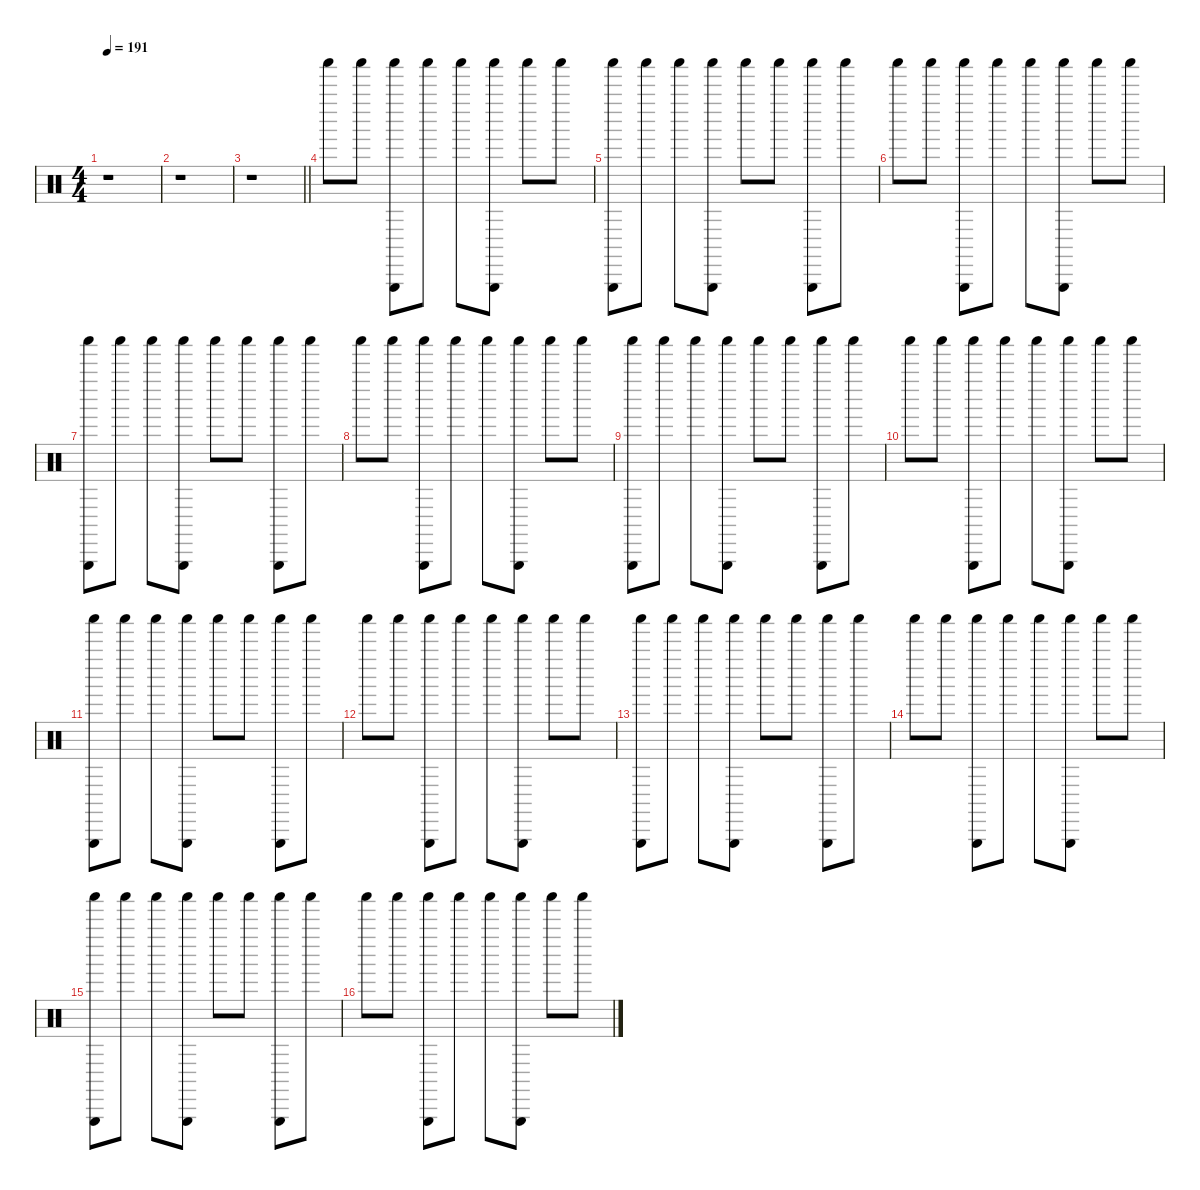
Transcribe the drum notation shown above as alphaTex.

\defaultSystemsLayout 4
\hideDynamics
\bracketExtendMode nobrackets
\singleTrackTrackNamePolicy hidden
\multiTrackTrackNamePolicy hidden
\firstSystemTrackNameMode fullname
\firstSystemTrackNameOrientation horizontal
\otherSystemsTrackNameOrientation horizontal
\track ("Percussion" "drm.") {instrument percussion}
\staff {score}
\articulation defaults
\ts (4 4)
\tempo 191
\clef neutral
\ks c
r.1{dy mp} |
r.1 |
\barLineRight lightlight
r.1 |
"Shaker (hit)".8 "Shaker (hit)".8 ("Shaker (hit)" "Triangle (hit)").8{dy fff} "Shaker (hit)".8{dy mp} "Shaker (hit)".8 ("Shaker (hit)" "Triangle (hit)").8 "Shaker (hit)".8{dy fff} "Shaker (hit)".8{dy mp} |
("Shaker (hit)" "Triangle (hit)").8 "Shaker (hit)".8 "Shaker (hit)".8{dy fff} ("Shaker (hit)" "Triangle (hit)").8{dy mp} "Shaker (hit)".8 "Shaker (hit)".8 ("Shaker (hit)" "Triangle (hit)").8{dy fff} "Shaker (hit)".8{dy mp} |
"Shaker (hit)".8 "Shaker (hit)".8 ("Shaker (hit)" "Triangle (hit)").8{dy fff} "Shaker (hit)".8{dy mp} "Shaker (hit)".8 ("Shaker (hit)" "Triangle (hit)").8 "Shaker (hit)".8{dy fff} "Shaker (hit)".8{dy mp} |
("Shaker (hit)" "Triangle (hit)").8 "Shaker (hit)".8 "Shaker (hit)".8{dy fff} ("Shaker (hit)" "Triangle (hit)").8{dy mp} "Shaker (hit)".8 "Shaker (hit)".8 ("Shaker (hit)" "Triangle (hit)").8{dy fff} "Shaker (hit)".8{dy mp} |
"Shaker (hit)".8 "Shaker (hit)".8 ("Shaker (hit)" "Triangle (hit)").8{dy fff} "Shaker (hit)".8{dy mp} "Shaker (hit)".8 ("Shaker (hit)" "Triangle (hit)").8 "Shaker (hit)".8{dy fff} "Shaker (hit)".8{dy mp} |
("Shaker (hit)" "Triangle (hit)").8 "Shaker (hit)".8 "Shaker (hit)".8{dy fff} ("Shaker (hit)" "Triangle (hit)").8{dy mp} "Shaker (hit)".8 "Shaker (hit)".8 ("Shaker (hit)" "Triangle (hit)").8{dy fff} "Shaker (hit)".8{dy mp} |
"Shaker (hit)".8 "Shaker (hit)".8 ("Shaker (hit)" "Triangle (hit)").8{dy fff} "Shaker (hit)".8{dy mp} "Shaker (hit)".8 ("Shaker (hit)" "Triangle (hit)").8 "Shaker (hit)".8{dy fff} "Shaker (hit)".8{dy mp} |
("Shaker (hit)" "Triangle (hit)").8 "Shaker (hit)".8 "Shaker (hit)".8{dy fff} ("Shaker (hit)" "Triangle (hit)").8{dy mp} "Shaker (hit)".8 "Shaker (hit)".8 ("Shaker (hit)" "Triangle (hit)").8{dy fff} "Shaker (hit)".8{dy mp} |
"Shaker (hit)".8 "Shaker (hit)".8 ("Shaker (hit)" "Triangle (hit)").8{dy fff} "Shaker (hit)".8{dy mp} "Shaker (hit)".8 ("Shaker (hit)" "Triangle (hit)").8 "Shaker (hit)".8{dy fff} "Shaker (hit)".8{dy mp} |
("Shaker (hit)" "Triangle (hit)").8 "Shaker (hit)".8 "Shaker (hit)".8{dy fff} ("Shaker (hit)" "Triangle (hit)").8{dy mp} "Shaker (hit)".8 "Shaker (hit)".8 ("Shaker (hit)" "Triangle (hit)").8{dy fff} "Shaker (hit)".8{dy mp} |
"Shaker (hit)".8 "Shaker (hit)".8 ("Shaker (hit)" "Triangle (hit)").8{dy fff} "Shaker (hit)".8{dy mp} "Shaker (hit)".8 ("Shaker (hit)" "Triangle (hit)").8 "Shaker (hit)".8{dy fff} "Shaker (hit)".8{dy mp} |
("Shaker (hit)" "Triangle (hit)").8 "Shaker (hit)".8 "Shaker (hit)".8{dy fff} ("Shaker (hit)" "Triangle (hit)").8{dy mp} "Shaker (hit)".8 "Shaker (hit)".8 ("Shaker (hit)" "Triangle (hit)").8{dy fff} "Shaker (hit)".8{dy mp} |
"Shaker (hit)".8 "Shaker (hit)".8 ("Shaker (hit)" "Triangle (hit)").8{dy fff} "Shaker (hit)".8{dy mp} "Shaker (hit)".8 ("Shaker (hit)" "Triangle (hit)").8 "Shaker (hit)".8{dy fff} "Shaker (hit)".8{dy mp}
